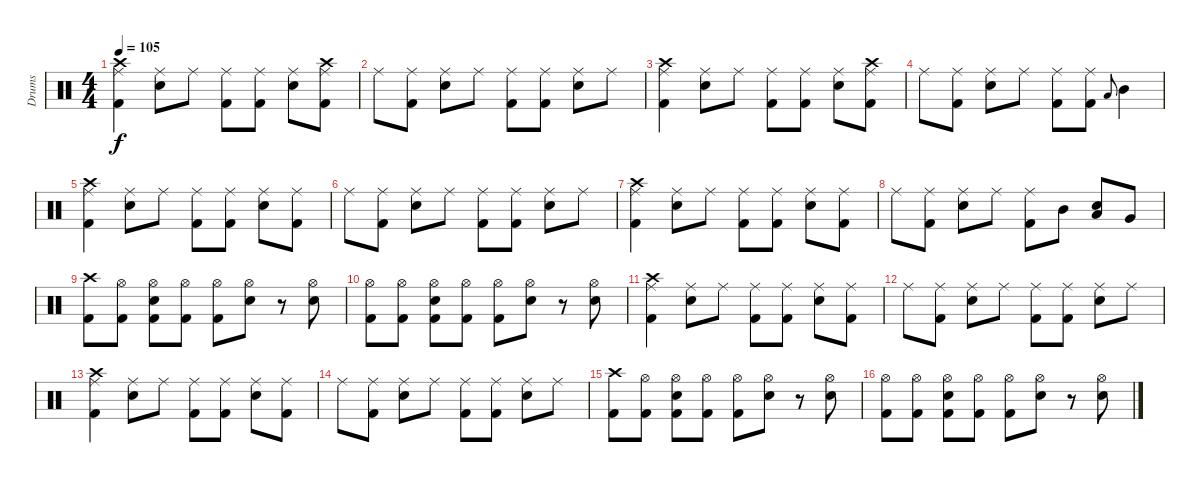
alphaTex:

\track ("Drums" "Drums") {instrument percussion}
\staff {score}
\articulation defaults
\ts (4 4)
\tempo 105
\clef neutral
\ks c
("Ride (middle)" "Crash high (hit)" "Kick (hit) 2").4{dy f} ("Ride (middle)" "Electric Snare (hit)").8 "Ride (middle)".8 ("Ride (middle)" "Kick (hit) 2").8 ("Ride (middle)" "Kick (hit) 2").8 ("Ride (middle)" "Electric Snare (hit)").8 ("Ride (middle)" "Crash high (hit)" "Kick (hit) 2").8 |
"Ride (middle)".8 ("Ride (middle)" "Kick (hit) 2").8 ("Ride (middle)" "Electric Snare (hit)").8 "Ride (middle)".8 ("Ride (middle)" "Kick (hit) 2").8 ("Ride (middle)" "Kick (hit) 2").8 ("Ride (middle)" "Electric Snare (hit)").8 "Ride (middle)".8 |
("Ride (middle)" "Crash high (hit)" "Kick (hit) 2").4 ("Ride (middle)" "Electric Snare (hit)").8 "Ride (middle)".8 ("Ride (middle)" "Kick (hit) 2").8 ("Ride (middle)" "Kick (hit) 2").8 ("Ride (middle)" "Electric Snare (hit)").8 ("Ride (middle)" "Crash high (hit)" "Kick (hit) 2").8 |
"Ride (middle)".8 ("Ride (middle)" "Kick (hit) 2").8 ("Ride (middle)" "Electric Snare (hit)").8 "Ride (middle)".8 ("Ride (middle)" "Kick (hit) 2").8 ("Ride (middle)" "Kick (hit) 2").8 "Low Tom (hit)".8{gr onbeat} "Mid Tom (hit)".4 |
("Ride (middle)" "Crash high (hit)" "Kick (hit) 2").4 ("Ride (middle)" "Electric Snare (hit)").8 "Ride (middle)".8 ("Ride (middle)" "Kick (hit) 2").8 ("Ride (middle)" "Kick (hit) 2").8 ("Ride (middle)" "Electric Snare (hit)").8 ("Ride (middle)" "Kick (hit) 2").8 |
"Ride (middle)".8 ("Ride (middle)" "Kick (hit) 2").8 ("Ride (middle)" "Electric Snare (hit)").8 "Ride (middle)".8 ("Ride (middle)" "Kick (hit) 2").8 ("Ride (middle)" "Kick (hit) 2").8 ("Ride (middle)" "Electric Snare (hit)").8 "Ride (middle)".8 |
("Ride (middle)" "Crash high (hit)" "Kick (hit) 2").4 ("Ride (middle)" "Electric Snare (hit)").8 "Ride (middle)".8 ("Ride (middle)" "Kick (hit) 2").8 ("Ride (middle)" "Kick (hit) 2").8 ("Ride (middle)" "Electric Snare (hit)").8 ("Ride (middle)" "Kick (hit) 2").8 |
"Ride (middle)".8 ("Ride (middle)" "Kick (hit) 2").8 ("Ride (middle)" "Electric Snare (hit)").8 "Ride (middle)".8 ("Ride (middle)" "Kick (hit) 2").8 "Mid Tom (hit)".8 ("Electric Snare (hit)" "Low Tom (hit)").8 "Very Low Tom (hit)".8 |
("Crash high (hit)" "Kick (hit) 2").8 ("Hi-Hat (open)" "Kick (hit) 2").8 ("Hi-Hat (open)" "Electric Snare (hit)" "Kick (hit) 2").8 ("Hi-Hat (open)" "Kick (hit) 2").8 ("Hi-Hat (open)" "Kick (hit) 2").8 ("Hi-Hat (open)" "Electric Snare (hit)").8 r.8 ("Hi-Hat (open)" "Electric Snare (hit)").8 |
("Hi-Hat (open)" "Kick (hit) 2").8 ("Hi-Hat (open)" "Kick (hit) 2").8 ("Hi-Hat (open)" "Electric Snare (hit)" "Kick (hit) 2").8 ("Hi-Hat (open)" "Kick (hit) 2").8 ("Hi-Hat (open)" "Kick (hit) 2").8 ("Hi-Hat (open)" "Electric Snare (hit)").8 r.8 ("Hi-Hat (open)" "Electric Snare (hit)").8 |
("Ride (middle)" "Crash high (hit)" "Kick (hit) 2").4 ("Ride (middle)" "Electric Snare (hit)").8 "Ride (middle)".8 ("Ride (middle)" "Kick (hit) 2").8 ("Ride (middle)" "Kick (hit) 2").8 ("Ride (middle)" "Electric Snare (hit)").8 ("Ride (middle)" "Kick (hit) 2").8 |
"Ride (middle)".8 ("Ride (middle)" "Kick (hit) 2").8 ("Ride (middle)" "Electric Snare (hit)").8 "Ride (middle)".8 ("Ride (middle)" "Kick (hit) 2").8 ("Ride (middle)" "Kick (hit) 2").8 ("Ride (middle)" "Electric Snare (hit)").8 "Ride (middle)".8 |
("Ride (middle)" "Crash high (hit)" "Kick (hit) 2").4 ("Ride (middle)" "Electric Snare (hit)").8 "Ride (middle)".8 ("Ride (middle)" "Kick (hit) 2").8 ("Ride (middle)" "Kick (hit) 2").8 ("Ride (middle)" "Electric Snare (hit)").8 ("Ride (middle)" "Kick (hit) 2").8 |
"Ride (middle)".8 ("Ride (middle)" "Kick (hit) 2").8 ("Ride (middle)" "Electric Snare (hit)").8 "Ride (middle)".8 ("Ride (middle)" "Kick (hit) 2").8 ("Ride (middle)" "Kick (hit) 2").8 ("Ride (middle)" "Electric Snare (hit)").8 "Ride (middle)".8 |
("Crash high (hit)" "Kick (hit) 2").8 ("Hi-Hat (open)" "Kick (hit) 2").8 ("Hi-Hat (open)" "Electric Snare (hit)" "Kick (hit) 2").8 ("Hi-Hat (open)" "Kick (hit) 2").8 ("Hi-Hat (open)" "Kick (hit) 2").8 ("Hi-Hat (open)" "Electric Snare (hit)").8 r.8 ("Hi-Hat (open)" "Electric Snare (hit)").8 |
("Hi-Hat (open)" "Kick (hit) 2").8 ("Hi-Hat (open)" "Kick (hit) 2").8 ("Hi-Hat (open)" "Electric Snare (hit)" "Kick (hit) 2").8 ("Hi-Hat (open)" "Kick (hit) 2").8 ("Hi-Hat (open)" "Kick (hit) 2").8 ("Hi-Hat (open)" "Electric Snare (hit)").8 r.8 ("Hi-Hat (open)" "Electric Snare (hit)").8
